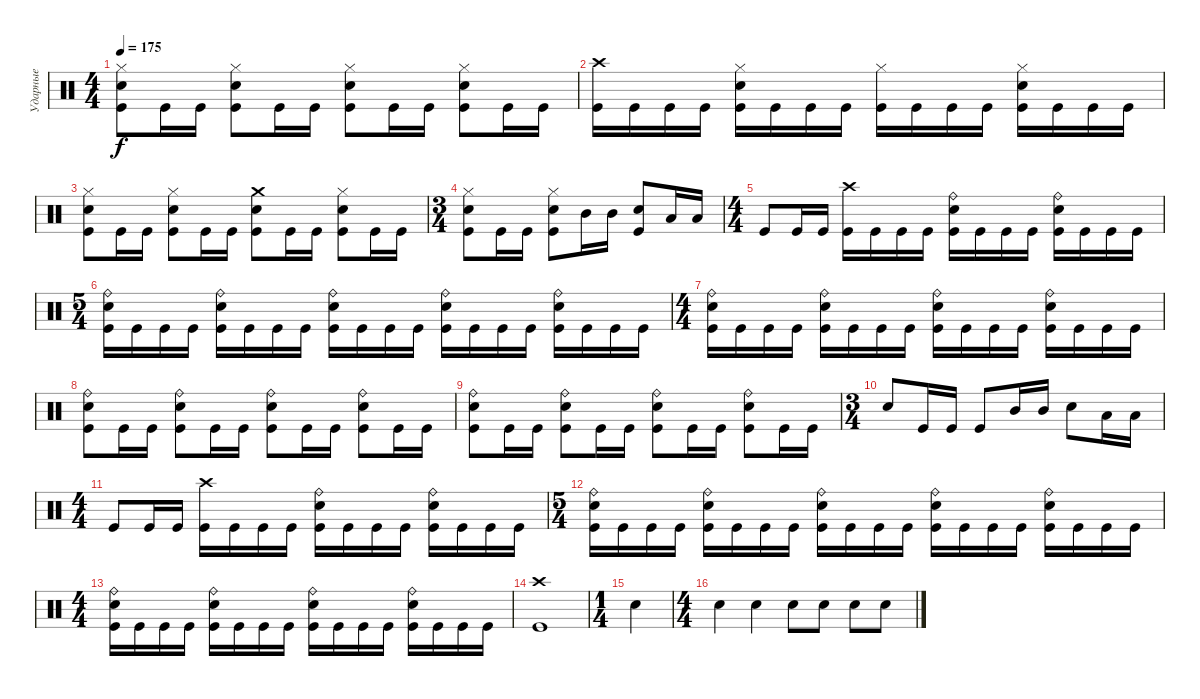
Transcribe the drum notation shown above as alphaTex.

\track ("Ударные" "Ударные") {instrument percussion}
\staff {score}
\articulation defaults
\ts (4 4)
\tempo 175
\clef neutral
\ks c
("Hi-Hat (closed)" "Electric Snare (hit)" "Kick (hit)").8{dy f} "Kick (hit)".16 "Kick (hit)".16 ("Hi-Hat (closed)" "Electric Snare (hit)" "Kick (hit)").8 "Kick (hit)".16 "Kick (hit)".16 ("Hi-Hat (closed)" "Electric Snare (hit)" "Kick (hit)").8 "Kick (hit)".16 "Kick (hit)".16 ("Hi-Hat (closed)" "Electric Snare (hit)" "Kick (hit)").8 "Kick (hit)".16 "Kick (hit)".16 |
("Crash high (hit)" "Kick (hit)").16 "Kick (hit)".16 "Kick (hit)".16 "Kick (hit)".16 ("Hi-Hat (closed)" "Electric Snare (hit)" "Kick (hit)").16 "Kick (hit)".16 "Kick (hit)".16 "Kick (hit)".16 ("Hi-Hat (closed)" "Kick (hit)").16 "Kick (hit)".16 "Kick (hit)".16 "Kick (hit)".16 ("Hi-Hat (closed)" "Electric Snare (hit)" "Kick (hit)").16 "Kick (hit)".16 "Kick (hit)".16 "Kick (hit)".16 |
("Hi-Hat (closed)" "Electric Snare (hit)" "Kick (hit)").8 "Kick (hit)".16 "Kick (hit)".16 ("Hi-Hat (closed)" "Electric Snare (hit)" "Kick (hit)").8 "Kick (hit)".16 "Kick (hit)".16 ("Crash medium (hit)" "Electric Snare (hit)" "Kick (hit)").8 "Kick (hit)".16 "Kick (hit)".16 ("Hi-Hat (closed)" "Electric Snare (hit)" "Kick (hit)").8 "Kick (hit)".16 "Kick (hit)".16 |
\ts (3 4)
("Hi-Hat (closed)" "Electric Snare (hit)" "Kick (hit)").8 "Kick (hit)".16 "Kick (hit)".16 ("Hi-Hat (closed)" "Electric Snare (hit)" "Kick (hit)").8 "Mid Tom (hit)".16 "Mid Tom (hit)".16 ("Electric Snare (hit)" "Kick (hit)").8 "Low Tom (hit)".16 "Low Tom (hit)".16 |
\ts (4 4)
"Kick (hit)".8 "Kick (hit)".16 "Kick (hit)".16 ("Crash high (hit)" "Kick (hit)").16 "Kick (hit)".16 "Kick (hit)".16 "Kick (hit)".16 ("Ride (bell)" "Electric Snare (hit)" "Kick (hit)").16 "Kick (hit)".16 "Kick (hit)".16 "Kick (hit)".16 ("Ride (bell)" "Electric Snare (hit)" "Kick (hit)").16 "Kick (hit)".16 "Kick (hit)".16 "Kick (hit)".16 |
\ts (5 4)
("Ride (bell)" "Electric Snare (hit)" "Kick (hit)").16 "Kick (hit)".16 "Kick (hit)".16 "Kick (hit)".16 ("Ride (bell)" "Electric Snare (hit)" "Kick (hit)").16 "Kick (hit)".16 "Kick (hit)".16 "Kick (hit)".16 ("Ride (bell)" "Electric Snare (hit)" "Kick (hit)").16 "Kick (hit)".16 "Kick (hit)".16 "Kick (hit)".16 ("Ride (bell)" "Electric Snare (hit)" "Kick (hit)").16 "Kick (hit)".16 "Kick (hit)".16 "Kick (hit)".16 ("Ride (bell)" "Electric Snare (hit)" "Kick (hit)").16 "Kick (hit)".16 "Kick (hit)".16 "Kick (hit)".16 |
\ts (4 4)
("Ride (bell)" "Electric Snare (hit)" "Kick (hit)").16 "Kick (hit)".16 "Kick (hit)".16 "Kick (hit)".16 ("Ride (bell)" "Electric Snare (hit)" "Kick (hit)").16 "Kick (hit)".16 "Kick (hit)".16 "Kick (hit)".16 ("Ride (bell)" "Electric Snare (hit)" "Kick (hit)").16 "Kick (hit)".16 "Kick (hit)".16 "Kick (hit)".16 ("Ride (bell)" "Electric Snare (hit)" "Kick (hit)").16 "Kick (hit)".16 "Kick (hit)".16 "Kick (hit)".16 |
("Ride (bell)" "Electric Snare (hit)" "Kick (hit)").8 "Kick (hit)".16 "Kick (hit)".16 ("Ride (bell)" "Electric Snare (hit)" "Kick (hit)").8 "Kick (hit)".16 "Kick (hit)".16 ("Ride (bell)" "Electric Snare (hit)" "Kick (hit)").8 "Kick (hit)".16 "Kick (hit)".16 ("Ride (bell)" "Electric Snare (hit)" "Kick (hit)").8 "Kick (hit)".16 "Kick (hit)".16 |
("Ride (bell)" "Electric Snare (hit)" "Kick (hit)").8 "Kick (hit)".16 "Kick (hit)".16 ("Ride (bell)" "Electric Snare (hit)" "Kick (hit)").8 "Kick (hit)".16 "Kick (hit)".16 ("Ride (bell)" "Electric Snare (hit)" "Kick (hit)").8 "Kick (hit)".16 "Kick (hit)".16 ("Ride (bell)" "Electric Snare (hit)" "Kick (hit)").8 "Kick (hit)".16 "Kick (hit)".16 |
\ts (3 4)
"Electric Snare (hit)".8 "Kick (hit)".16 "Kick (hit)".16 "Kick (hit)".8 "Mid Tom (hit)".16 "Mid Tom (hit)".16 "Electric Snare (hit)".8 "Low Tom (hit)".16 "Low Tom (hit)".16 |
\ts (4 4)
"Kick (hit)".8 "Kick (hit)".16 "Kick (hit)".16 ("Crash high (hit)" "Kick (hit)").16 "Kick (hit)".16 "Kick (hit)".16 "Kick (hit)".16 ("Ride (bell)" "Electric Snare (hit)" "Kick (hit)").16 "Kick (hit)".16 "Kick (hit)".16 "Kick (hit)".16 ("Ride (bell)" "Electric Snare (hit)" "Kick (hit)").16 "Kick (hit)".16 "Kick (hit)".16 "Kick (hit)".16 |
\ts (5 4)
("Ride (bell)" "Electric Snare (hit)" "Kick (hit)").16 "Kick (hit)".16 "Kick (hit)".16 "Kick (hit)".16 ("Ride (bell)" "Electric Snare (hit)" "Kick (hit)").16 "Kick (hit)".16 "Kick (hit)".16 "Kick (hit)".16 ("Ride (bell)" "Electric Snare (hit)" "Kick (hit)").16 "Kick (hit)".16 "Kick (hit)".16 "Kick (hit)".16 ("Ride (bell)" "Electric Snare (hit)" "Kick (hit)").16 "Kick (hit)".16 "Kick (hit)".16 "Kick (hit)".16 ("Ride (bell)" "Electric Snare (hit)" "Kick (hit)").16 "Kick (hit)".16 "Kick (hit)".16 "Kick (hit)".16 |
\ts (4 4)
("Ride (bell)" "Electric Snare (hit)" "Kick (hit)").16 "Kick (hit)".16 "Kick (hit)".16 "Kick (hit)".16 ("Ride (bell)" "Electric Snare (hit)" "Kick (hit)").16 "Kick (hit)".16 "Kick (hit)".16 "Kick (hit)".16 ("Ride (bell)" "Electric Snare (hit)" "Kick (hit)").16 "Kick (hit)".16 "Kick (hit)".16 "Kick (hit)".16 ("Ride (bell)" "Electric Snare (hit)" "Kick (hit)").16 "Kick (hit)".16 "Kick (hit)".16 "Kick (hit)".16 |
("Crash high (hit)" "Kick (hit)").1 |
\ts (1 4)
"Electric Snare (hit)".4 |
\ts (4 4)
"Electric Snare (hit)".4 "Electric Snare (hit)".4 "Electric Snare (hit)".8 "Electric Snare (hit)".8 "Electric Snare (hit)".8 "Electric Snare (hit)".8
